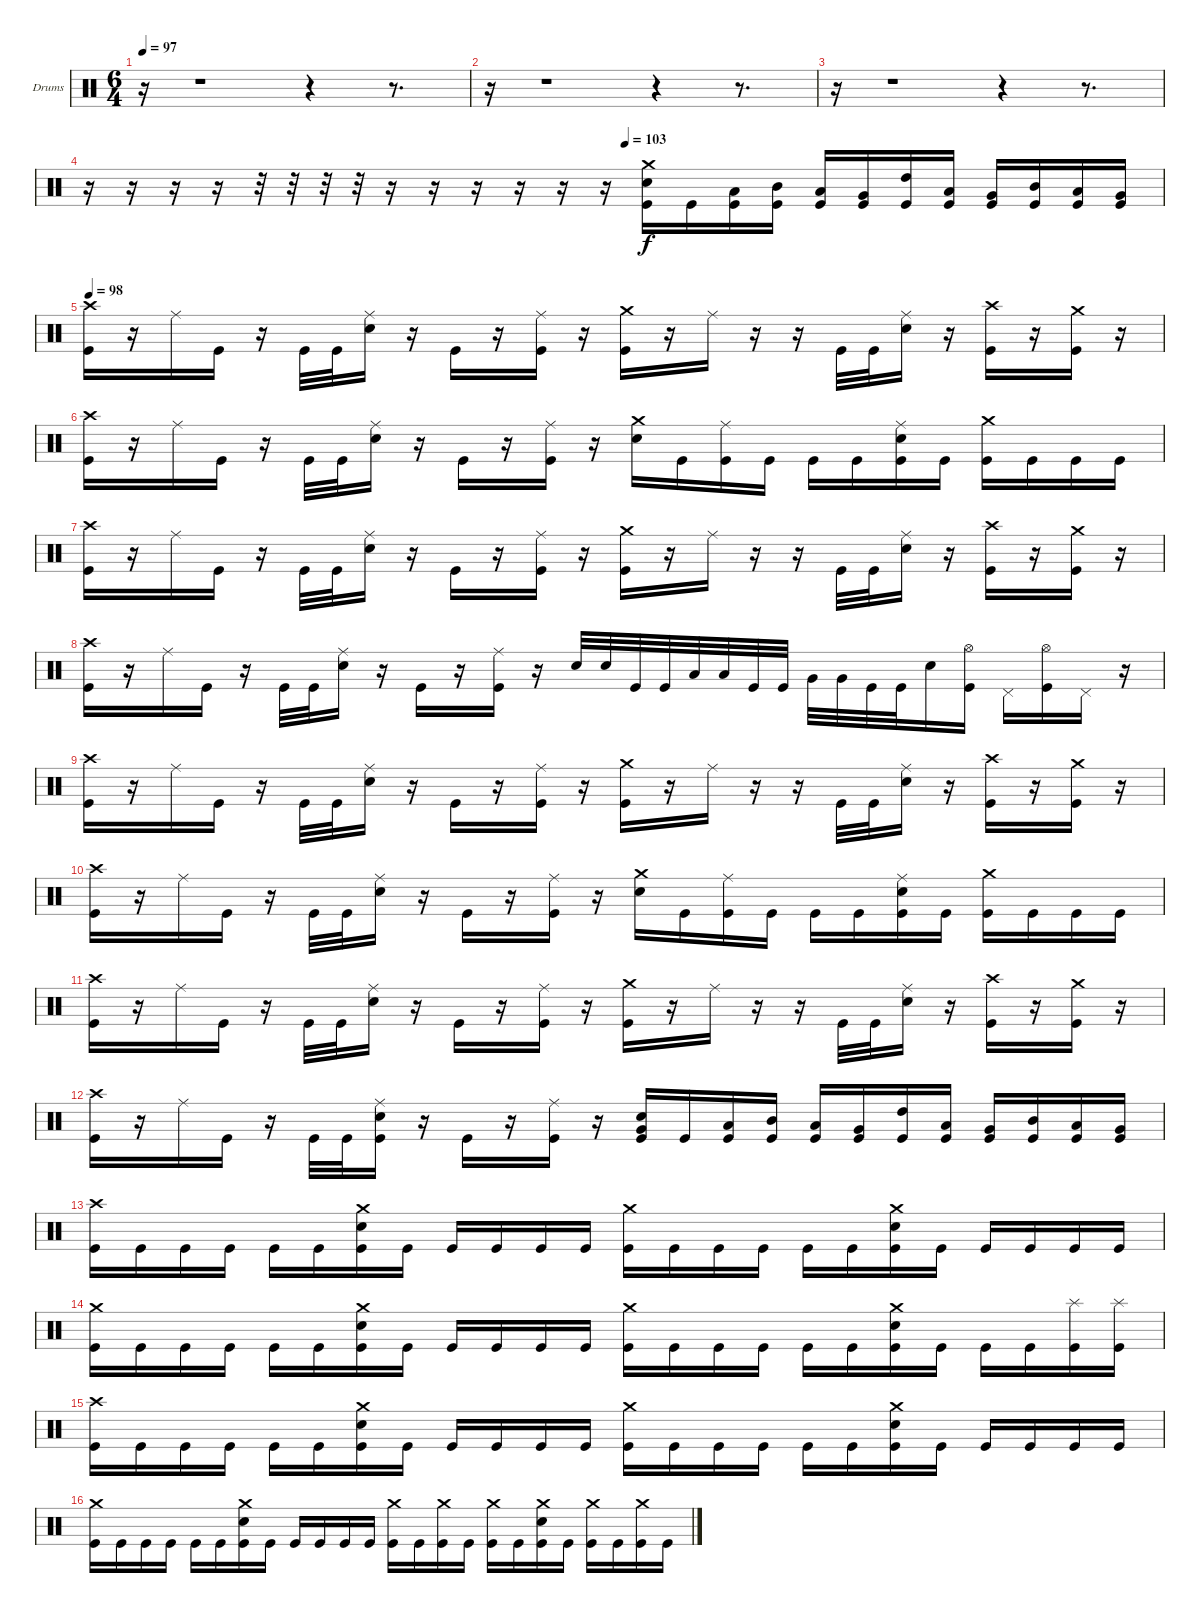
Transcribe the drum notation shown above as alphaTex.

\bracketExtendMode groupsimilarinstruments
\firstSystemTrackNameOrientation horizontal
\otherSystemsTrackNameOrientation horizontal
\track ("Drumkit" "Drums") {instrument percussion}
\staff {score}
\articulation defaults
\ts (6 4)
\tempo 97
\clef neutral
\ks c
r.16{dy f} r.1 r.4 r.8{d} |
r.16 r.1 r.4 r.8{d} |
r.16 r.1 r.4 r.8{d} |
\tempo (103 0.5)
r.16 r.16 r.16 r.16 r.32 r.32 r.32 r.32 r.16 r.16 r.16 r.16 r.16 r.16 ("Crash medium (hit)" "Snare (hit) 2" "Kick (hit)").16 "Kick (hit)".16 ("Low Tom (hit)" "Kick (hit)").16 ("Mid Tom (hit)" "Kick (hit)").16 ("Low Tom (hit)" "Kick (hit)").16 ("Very Low Tom (hit)" "Kick (hit)").16 ("High Tom (hit)" "Kick (hit)").16 ("Low Tom (hit)" "Kick (hit)").16 ("Very Low Tom (hit)" "Kick (hit)").16 ("Mid Tom (hit)" "Kick (hit)").16 ("Low Tom (hit)" "Kick (hit)").16 ("Very Low Tom (hit)" "Kick (hit)").16 |
\tempo 98
("Crash high (hit)" "Kick (hit)").16 r.16 "Ride (middle)".16 "Kick (hit)".16 r.16 "Kick (hit)".32 "Kick (hit)".32 ("Ride (middle)" "Snare (hit) 2").16 r.16 "Kick (hit)".16 r.16 ("Ride (middle)" "Kick (hit)").16 r.16 ("Crash medium (hit)" "Kick (hit)").16 r.16 "Ride (middle)".16 r.16 r.16 "Kick (hit)".32 "Kick (hit)".32 ("Ride (middle)" "Snare (hit) 2").16 r.16 ("Crash high (hit)" "Kick (hit)").16 r.16 ("Crash medium (hit)" "Kick (hit)").16 r.16 |
("Crash high (hit)" "Kick (hit)").16 r.16 "Ride (middle)".16 "Kick (hit)".16 r.16 "Kick (hit)".32 "Kick (hit)".32 ("Ride (middle)" "Snare (hit) 2").16 r.16 "Kick (hit)".16 r.16 ("Ride (middle)" "Kick (hit)").16 r.16 ("Crash medium (hit)" "Snare (hit) 2").16 "Kick (hit)".16 ("Ride (middle)" "Kick (hit)").16 "Kick (hit)".16 "Kick (hit)".16 "Kick (hit)".16 ("Ride (middle)" "Snare (hit) 2" "Kick (hit)").16 "Kick (hit)".16 ("Crash medium (hit)" "Kick (hit)").16 "Kick (hit)".16 "Kick (hit)".16 "Kick (hit)".16 |
("Crash high (hit)" "Kick (hit)").16 r.16 "Ride (middle)".16 "Kick (hit)".16 r.16 "Kick (hit)".32 "Kick (hit)".32 ("Ride (middle)" "Snare (hit) 2").16 r.16 "Kick (hit)".16 r.16 ("Ride (middle)" "Kick (hit)").16 r.16 ("Crash medium (hit)" "Kick (hit)").16 r.16 "Ride (middle)".16 r.16 r.16 "Kick (hit)".32 "Kick (hit)".32 ("Ride (middle)" "Snare (hit) 2").16 r.16 ("Crash high (hit)" "Kick (hit)").16 r.16 ("Crash medium (hit)" "Kick (hit)").16 r.16 |
("Crash high (hit)" "Kick (hit)").16 r.16 "Ride (middle)".16 "Kick (hit)".16 r.16 "Kick (hit)".32 "Kick (hit)".32 ("Ride (middle)" "Snare (hit) 2").16 r.16 "Kick (hit)".16 r.16 ("Ride (middle)" "Kick (hit)").16 r.16 "Snare (hit) 2".32 "Snare (hit) 2".32 "Kick (hit)".32 "Kick (hit)".32 "Low Tom (hit)".32 "Low Tom (hit)".32 "Kick (hit)".32 "Kick (hit)".32 "Very Low Tom (hit)".32 "Very Low Tom (hit)".32 "Kick (hit)".32 "Kick (hit)".32 "Snare (hit) 2".16 ("Hi-Hat (open)" "Kick (hit)").16 "Pedal Hi-Hat (hit)".16 ("Hi-Hat (open)" "Kick (hit)").16 "Pedal Hi-Hat (hit)".16 r.16 |
("Crash high (hit)" "Kick (hit)").16 r.16 "Ride (middle)".16 "Kick (hit)".16 r.16 "Kick (hit)".32 "Kick (hit)".32 ("Ride (middle)" "Snare (hit) 2").16 r.16 "Kick (hit)".16 r.16 ("Ride (middle)" "Kick (hit)").16 r.16 ("Crash medium (hit)" "Kick (hit)").16 r.16 "Ride (middle)".16 r.16 r.16 "Kick (hit)".32 "Kick (hit)".32 ("Ride (middle)" "Snare (hit) 2").16 r.16 ("Crash high (hit)" "Kick (hit)").16 r.16 ("Crash medium (hit)" "Kick (hit)").16 r.16 |
("Crash high (hit)" "Kick (hit)").16 r.16 "Ride (middle)".16 "Kick (hit)".16 r.16 "Kick (hit)".32 "Kick (hit)".32 ("Ride (middle)" "Snare (hit) 2").16 r.16 "Kick (hit)".16 r.16 ("Ride (middle)" "Kick (hit)").16 r.16 ("Crash medium (hit)" "Snare (hit) 2").16 "Kick (hit)".16 ("Ride (middle)" "Kick (hit)").16 "Kick (hit)".16 "Kick (hit)".16 "Kick (hit)".16 ("Ride (middle)" "Snare (hit) 2" "Kick (hit)").16 "Kick (hit)".16 ("Crash medium (hit)" "Kick (hit)").16 "Kick (hit)".16 "Kick (hit)".16 "Kick (hit)".16 |
("Crash high (hit)" "Kick (hit)").16 r.16 "Ride (middle)".16 "Kick (hit)".16 r.16 "Kick (hit)".32 "Kick (hit)".32 ("Ride (middle)" "Snare (hit) 2").16 r.16 "Kick (hit)".16 r.16 ("Ride (middle)" "Kick (hit)").16 r.16 ("Crash medium (hit)" "Kick (hit)").16 r.16 "Ride (middle)".16 r.16 r.16 "Kick (hit)".32 "Kick (hit)".32 ("Ride (middle)" "Snare (hit) 2").16 r.16 ("Crash high (hit)" "Kick (hit)").16 r.16 ("Crash medium (hit)" "Kick (hit)").16 r.16 |
("Crash high (hit)" "Kick (hit)").16 r.16 "Ride (middle)".16 "Kick (hit)".16 r.16 "Kick (hit)".32 "Kick (hit)".32 ("Ride (middle)" "Snare (hit) 2" "Kick (hit)").16 r.16 "Kick (hit)".16 r.16 ("Ride (middle)" "Kick (hit)").16 r.16 ("Snare (hit) 2" "Very Low Tom (hit)" "Kick (hit)").16 "Kick (hit)".16 ("Low Tom (hit)" "Kick (hit)").16 ("Mid Tom (hit)" "Kick (hit)").16 ("Low Tom (hit)" "Kick (hit)").16 ("Very Low Tom (hit)" "Kick (hit)").16 ("High Tom (hit)" "Kick (hit)").16 ("Low Tom (hit)" "Kick (hit)").16 ("Very Low Tom (hit)" "Kick (hit)").16 ("Mid Tom (hit)" "Kick (hit)").16 ("Low Tom (hit)" "Kick (hit)").16 ("Very Low Tom (hit)" "Kick (hit)").16 |
("Crash high (hit)" "Kick (hit)").16 "Kick (hit)".16 "Kick (hit)".16 "Kick (hit)".16 "Kick (hit)".16 "Kick (hit)".16 ("Crash medium (hit)" "Snare (hit) 2" "Kick (hit)").16 "Kick (hit)".16 "Kick (hit)".16 "Kick (hit)".16 "Kick (hit)".16 "Kick (hit)".16 ("Crash medium (hit)" "Kick (hit)").16 "Kick (hit)".16 "Kick (hit)".16 "Kick (hit)".16 "Kick (hit)".16 "Kick (hit)".16 ("Crash medium (hit)" "Snare (hit) 2" "Kick (hit)").16 "Kick (hit)".16 "Kick (hit)".16 "Kick (hit)".16 "Kick (hit)".16 "Kick (hit)".16 |
("Crash medium (hit)" "Kick (hit)").16 "Kick (hit)".16 "Kick (hit)".16 "Kick (hit)".16 "Kick (hit)".16 "Kick (hit)".16 ("Crash medium (hit)" "Snare (hit) 2" "Kick (hit)").16 "Kick (hit)".16 "Kick (hit)".16 "Kick (hit)".16 "Kick (hit)".16 "Kick (hit)".16 ("Crash medium (hit)" "Kick (hit)").16 "Kick (hit)".16 "Kick (hit)".16 "Kick (hit)".16 "Kick (hit)".16 "Kick (hit)".16 ("Crash medium (hit)" "Snare (hit) 2" "Kick (hit)").16 "Kick (hit)".16 "Kick (hit)".16 "Kick (hit)".16 ("Splash (hit)" "Kick (hit)").16 ("Splash (hit)" "Kick (hit)").16 |
("Crash high (hit)" "Kick (hit)").16 "Kick (hit)".16 "Kick (hit)".16 "Kick (hit)".16 "Kick (hit)".16 "Kick (hit)".16 ("Crash medium (hit)" "Snare (hit) 2" "Kick (hit)").16 "Kick (hit)".16 "Kick (hit)".16 "Kick (hit)".16 "Kick (hit)".16 "Kick (hit)".16 ("Crash medium (hit)" "Kick (hit)").16 "Kick (hit)".16 "Kick (hit)".16 "Kick (hit)".16 "Kick (hit)".16 "Kick (hit)".16 ("Crash medium (hit)" "Snare (hit) 2" "Kick (hit)").16 "Kick (hit)".16 "Kick (hit)".16 "Kick (hit)".16 "Kick (hit)".16 "Kick (hit)".16 |
("Crash medium (hit)" "Kick (hit)").16 "Kick (hit)".16 "Kick (hit)".16 "Kick (hit)".16 "Kick (hit)".16 "Kick (hit)".16 ("Crash medium (hit)" "Snare (hit) 2" "Kick (hit)").16 "Kick (hit)".16 "Kick (hit)".16 "Kick (hit)".16 "Kick (hit)".16 "Kick (hit)".16 ("Crash medium (hit)" "Kick (hit)").16 "Kick (hit)".16 ("Crash medium (hit)" "Kick (hit)").16 "Kick (hit)".16 ("Crash medium (hit)" "Kick (hit)").16 "Kick (hit)".16 ("Crash medium (hit)" "Snare (hit) 2" "Kick (hit)").16 "Kick (hit)".16 ("Crash medium (hit)" "Kick (hit)").16 "Kick (hit)".16 ("Crash medium (hit)" "Kick (hit)").16 "Kick (hit)".16
